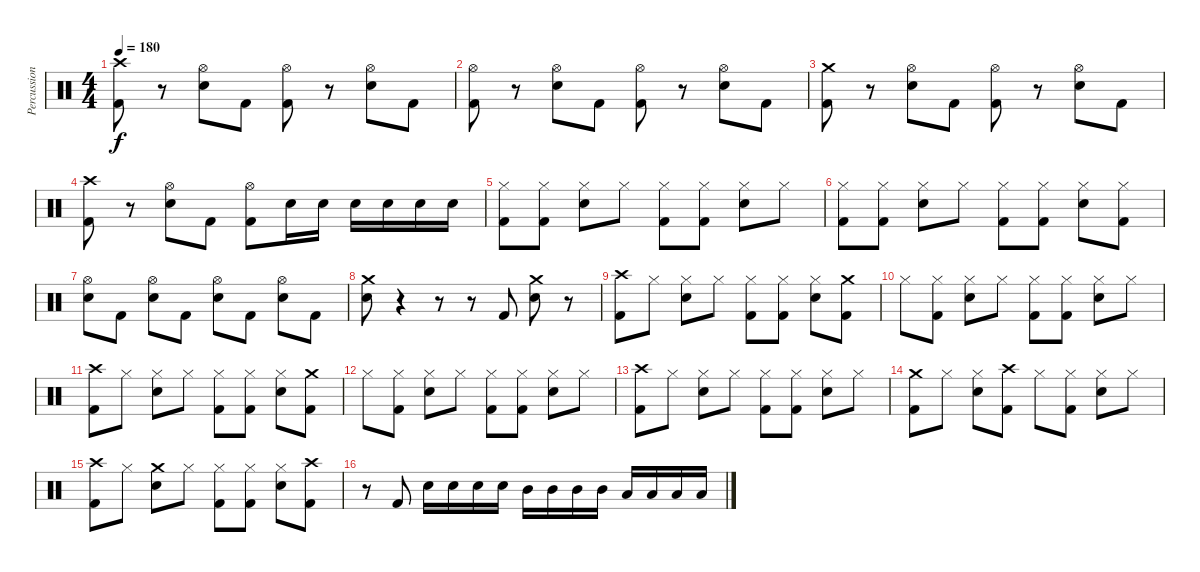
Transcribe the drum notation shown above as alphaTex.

\track ("Percussion" "Percussion") {instrument percussion}
\staff {score}
\articulation defaults
\ts (4 4)
\tempo 180
\clef neutral
\ks c
("Crash high (hit)" "Kick (hit) 2").8{dy f} r.8 ("Hi-Hat (open)" "Electric Snare (hit)").8 "Kick (hit) 2".8 ("Hi-Hat (open)" "Kick (hit) 2").8 r.8 ("Hi-Hat (open)" "Electric Snare (hit)").8 "Kick (hit) 2".8 |
("Hi-Hat (open)" "Kick (hit) 2").8 r.8 ("Hi-Hat (open)" "Electric Snare (hit)").8 "Kick (hit) 2".8 ("Hi-Hat (open)" "Kick (hit) 2").8 r.8 ("Hi-Hat (open)" "Electric Snare (hit)").8 "Kick (hit) 2".8 |
("Crash medium (hit)" "Kick (hit) 2").8 r.8 ("Hi-Hat (open)" "Electric Snare (hit)").8 "Kick (hit) 2".8 ("Hi-Hat (open)" "Kick (hit) 2").8 r.8 ("Hi-Hat (open)" "Electric Snare (hit)").8 "Kick (hit) 2".8 |
("Crash high (hit)" "Kick (hit) 2").8 r.8 ("Hi-Hat (open)" "Electric Snare (hit)").8 "Kick (hit) 2".8 ("Hi-Hat (open)" "Kick (hit) 2").8 "Electric Snare (hit)".16 "Electric Snare (hit)".16 "Electric Snare (hit)".16 "Electric Snare (hit)".16 "Electric Snare (hit)".16 "Electric Snare (hit)".16 |
("Hi-Hat (closed)" "Kick (hit) 2").8 ("Hi-Hat (closed)" "Kick (hit) 2").8 ("Hi-Hat (closed)" "Electric Snare (hit)").8 "Hi-Hat (closed)".8 ("Hi-Hat (closed)" "Kick (hit) 2").8 ("Hi-Hat (closed)" "Kick (hit) 2").8 ("Hi-Hat (closed)" "Electric Snare (hit)").8 "Hi-Hat (closed)".8 |
("Hi-Hat (closed)" "Kick (hit) 2").8 ("Hi-Hat (closed)" "Kick (hit) 2").8 ("Hi-Hat (closed)" "Electric Snare (hit)").8 "Hi-Hat (closed)".8 ("Hi-Hat (closed)" "Kick (hit) 2").8 ("Hi-Hat (closed)" "Kick (hit) 2").8 ("Hi-Hat (closed)" "Electric Snare (hit)").8 ("Hi-Hat (closed)" "Kick (hit) 2").8 |
("Hi-Hat (open)" "Electric Snare (hit)").8 "Kick (hit) 2".8 ("Hi-Hat (open)" "Electric Snare (hit)").8 "Kick (hit) 2".8 ("Hi-Hat (open)" "Electric Snare (hit)").8 "Kick (hit) 2".8 ("Hi-Hat (open)" "Electric Snare (hit)").8 "Kick (hit) 2".8 |
("Crash medium (hit)" "Electric Snare (hit)").8 r.4 r.8 r.8 "Kick (hit) 2".8 ("Crash medium (hit)" "Electric Snare (hit)").8 r.8 |
("Crash high (hit)" "Kick (hit) 2").8 "Hi-Hat (closed)".8 ("Hi-Hat (closed)" "Electric Snare (hit)").8 "Hi-Hat (closed)".8 ("Hi-Hat (closed)" "Kick (hit) 2").8 ("Hi-Hat (closed)" "Kick (hit) 2").8 ("Hi-Hat (closed)" "Electric Snare (hit)").8 ("Crash medium (hit)" "Kick (hit) 2").8 |
"Hi-Hat (closed)".8 ("Hi-Hat (closed)" "Kick (hit) 2").8 ("Hi-Hat (closed)" "Electric Snare (hit)").8 "Hi-Hat (closed)".8 ("Hi-Hat (closed)" "Kick (hit) 2").8 ("Hi-Hat (closed)" "Kick (hit) 2").8 ("Hi-Hat (closed)" "Electric Snare (hit)").8 "Hi-Hat (closed)".8 |
("Crash high (hit)" "Kick (hit) 2").8 "Hi-Hat (closed)".8 ("Hi-Hat (closed)" "Electric Snare (hit)").8 "Hi-Hat (closed)".8 ("Hi-Hat (closed)" "Kick (hit) 2").8 ("Hi-Hat (closed)" "Kick (hit) 2").8 ("Hi-Hat (closed)" "Electric Snare (hit)").8 ("Crash medium (hit)" "Kick (hit) 2").8 |
"Hi-Hat (closed)".8 ("Hi-Hat (closed)" "Kick (hit) 2").8 ("Hi-Hat (closed)" "Electric Snare (hit)").8 "Hi-Hat (closed)".8 ("Hi-Hat (closed)" "Kick (hit) 2").8 ("Hi-Hat (closed)" "Kick (hit) 2").8 ("Hi-Hat (closed)" "Electric Snare (hit)").8 "Hi-Hat (closed)".8 |
("Crash high (hit)" "Kick (hit) 2").8 "Hi-Hat (closed)".8 ("Hi-Hat (closed)" "Electric Snare (hit)").8 "Hi-Hat (closed)".8 ("Hi-Hat (closed)" "Kick (hit) 2").8 ("Hi-Hat (closed)" "Kick (hit) 2").8 ("Hi-Hat (closed)" "Electric Snare (hit)").8 "Hi-Hat (closed)".8 |
("Crash medium (hit)" "Kick (hit) 2").8 "Hi-Hat (closed)".8 ("Hi-Hat (closed)" "Electric Snare (hit)").8 ("Crash high (hit)" "Kick (hit) 2").8 "Hi-Hat (closed)".8 ("Hi-Hat (closed)" "Kick (hit) 2").8 ("Hi-Hat (closed)" "Electric Snare (hit)").8 "Hi-Hat (closed)".8 |
("Crash high (hit)" "Kick (hit) 2").8 "Hi-Hat (closed)".8 ("Crash medium (hit)" "Electric Snare (hit)").8 "Hi-Hat (closed)".8 ("Hi-Hat (closed)" "Kick (hit) 2").8 ("Hi-Hat (closed)" "Kick (hit) 2").8 ("Hi-Hat (closed)" "Electric Snare (hit)").8 ("Crash high (hit)" "Kick (hit) 2").8 |
r.8 "Kick (hit) 2".8 "Electric Snare (hit)".16 "Electric Snare (hit)".16 "Electric Snare (hit)".16 "Electric Snare (hit)".16 "Mid Tom (hit)".16 "Mid Tom (hit)".16 "Mid Tom (hit)".16 "Mid Tom (hit)".16 "Low Tom (hit)".16 "Low Tom (hit)".16 "Low Tom (hit)".16 "Low Tom (hit)".16
